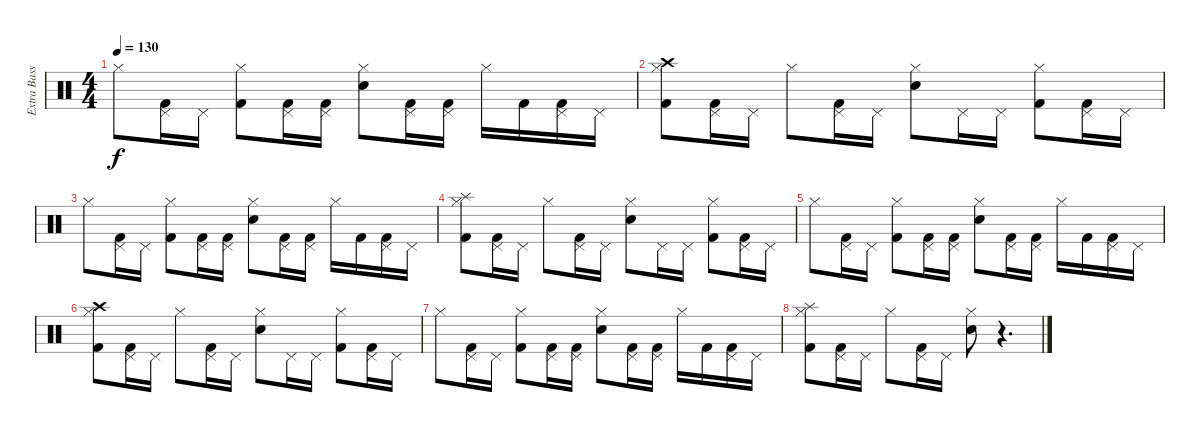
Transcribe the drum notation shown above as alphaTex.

\track ("Extra BassDrum" "Extra Bass") {instrument percussion}
\staff {score}
\articulation defaults
\ts (4 4)
\tempo 130
\clef neutral
\ks c "Hi-Hat (closed)".8{dy f}
("Pedal Hi-Hat (hit)" "Kick (hit) 2").16 "Pedal Hi-Hat (hit)".16 ("Hi-Hat (closed)" "Kick (hit) 2").8 ("Pedal Hi-Hat (hit)" "Kick (hit) 2").16 ("Pedal Hi-Hat (hit)" "Kick (hit) 2").16 ("Hi-Hat (closed)" "Snare (hit) 2").8 ("Pedal Hi-Hat (hit)" "Kick (hit) 2").16 ("Pedal Hi-Hat (hit)" "Kick (hit) 2").16 "Hi-Hat (closed)".16 "Kick (hit) 2".16 ("Pedal Hi-Hat (hit)" "Kick (hit) 2").16 "Pedal Hi-Hat (hit)".16 |
("Crash high (hit)" "Hi-Hat (closed)" "Kick (hit) 2").8 ("Pedal Hi-Hat (hit)" "Kick (hit) 2").16 "Pedal Hi-Hat (hit)".16 "Hi-Hat (closed)".8 ("Pedal Hi-Hat (hit)" "Kick (hit) 2").16 "Pedal Hi-Hat (hit)".16 ("Hi-Hat (closed)" "Snare (hit) 2").8 "Pedal Hi-Hat (hit)".16 "Pedal Hi-Hat (hit)".16 ("Hi-Hat (closed)" "Kick (hit) 2").8 ("Pedal Hi-Hat (hit)" "Kick (hit) 2").16 "Pedal Hi-Hat (hit)".16 |
"Hi-Hat (closed)".8 ("Pedal Hi-Hat (hit)" "Kick (hit) 2").16 "Pedal Hi-Hat (hit)".16 ("Hi-Hat (closed)" "Kick (hit) 2").8 ("Pedal Hi-Hat (hit)" "Kick (hit) 2").16 ("Pedal Hi-Hat (hit)" "Kick (hit) 2").16 ("Hi-Hat (closed)" "Snare (hit) 2").8 ("Pedal Hi-Hat (hit)" "Kick (hit) 2").16 ("Pedal Hi-Hat (hit)" "Kick (hit) 2").16 "Hi-Hat (closed)".16 "Kick (hit) 2".16 ("Pedal Hi-Hat (hit)" "Kick (hit) 2").16 "Pedal Hi-Hat (hit)".16 |
("Splash (hit)" "Hi-Hat (closed)" "Kick (hit) 2").8 ("Pedal Hi-Hat (hit)" "Kick (hit) 2").16 "Pedal Hi-Hat (hit)".16 "Hi-Hat (closed)".8 ("Pedal Hi-Hat (hit)" "Kick (hit) 2").16 "Pedal Hi-Hat (hit)".16 ("Hi-Hat (closed)" "Snare (hit) 2").8 "Pedal Hi-Hat (hit)".16 "Pedal Hi-Hat (hit)".16 ("Hi-Hat (closed)" "Kick (hit) 2").8 ("Pedal Hi-Hat (hit)" "Kick (hit) 2").16 "Pedal Hi-Hat (hit)".16 |
"Hi-Hat (closed)".8 ("Pedal Hi-Hat (hit)" "Kick (hit) 2").16 "Pedal Hi-Hat (hit)".16 ("Hi-Hat (closed)" "Kick (hit) 2").8 ("Pedal Hi-Hat (hit)" "Kick (hit) 2").16 ("Pedal Hi-Hat (hit)" "Kick (hit) 2").16 ("Hi-Hat (closed)" "Snare (hit) 2").8 ("Pedal Hi-Hat (hit)" "Kick (hit) 2").16 ("Pedal Hi-Hat (hit)" "Kick (hit) 2").16 "Hi-Hat (closed)".16 "Kick (hit) 2".16 ("Pedal Hi-Hat (hit)" "Kick (hit) 2").16 "Pedal Hi-Hat (hit)".16 |
("Crash high (hit)" "Hi-Hat (closed)" "Kick (hit) 2").8 ("Pedal Hi-Hat (hit)" "Kick (hit) 2").16 "Pedal Hi-Hat (hit)".16 "Hi-Hat (closed)".8 ("Pedal Hi-Hat (hit)" "Kick (hit) 2").16 "Pedal Hi-Hat (hit)".16 ("Hi-Hat (closed)" "Snare (hit) 2").8 "Pedal Hi-Hat (hit)".16 "Pedal Hi-Hat (hit)".16 ("Hi-Hat (closed)" "Kick (hit) 2").8 ("Pedal Hi-Hat (hit)" "Kick (hit) 2").16 "Pedal Hi-Hat (hit)".16 |
"Hi-Hat (closed)".8 ("Pedal Hi-Hat (hit)" "Kick (hit) 2").16 "Pedal Hi-Hat (hit)".16 ("Hi-Hat (closed)" "Kick (hit) 2").8 ("Pedal Hi-Hat (hit)" "Kick (hit) 2").16 ("Pedal Hi-Hat (hit)" "Kick (hit) 2").16 ("Hi-Hat (closed)" "Snare (hit) 2").8 ("Pedal Hi-Hat (hit)" "Kick (hit) 2").16 ("Pedal Hi-Hat (hit)" "Kick (hit) 2").16 "Hi-Hat (closed)".16 "Kick (hit) 2".16 ("Pedal Hi-Hat (hit)" "Kick (hit) 2").16 "Pedal Hi-Hat (hit)".16 |
("Splash (hit)" "Hi-Hat (closed)" "Kick (hit) 2").8 ("Pedal Hi-Hat (hit)" "Kick (hit) 2").16 "Pedal Hi-Hat (hit)".16 "Hi-Hat (closed)".8 ("Pedal Hi-Hat (hit)" "Kick (hit) 2").16 "Pedal Hi-Hat (hit)".16 ("Hi-Hat (closed)" "Snare (hit) 2").8 r.4{d}
